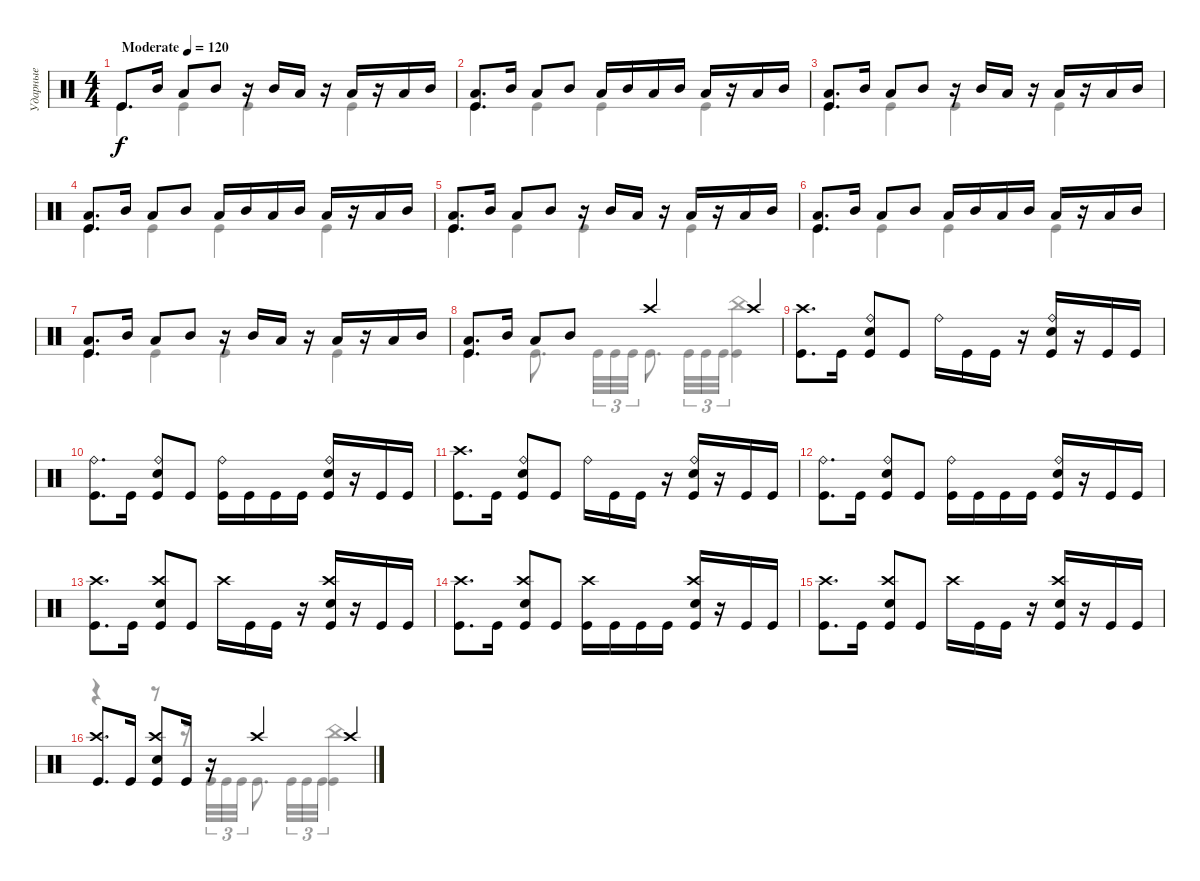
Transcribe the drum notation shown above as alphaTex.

\track ("Ударные" "Ударные") {instrument percussion}
\staff {score}
\articulation defaults
\voice
\ts (4 4)
\tempo (120 "Moderate")
\clef neutral
\ks c "Kick (hit)".8{d dy f} "Mid Tom (hit)".16 "Low Tom (hit)".8 "Mid Tom (hit)".8
r.16 "Mid Tom (hit)".16 "Low Tom (hit)".16 r.16 "Low Tom (hit)".16 r.16 "Low Tom (hit)".16 "Mid Tom (hit)".16 |
("Kick (hit)" "Low Tom (hit)").8{d} "Mid Tom (hit)".16 "Low Tom (hit)".8 "Mid Tom (hit)".8 "Low Tom (hit)".16 "Mid Tom (hit)".16 "Low Tom (hit)".16 "Mid Tom (hit)".16 "Low Tom (hit)".16 r.16 "Low Tom (hit)".16 "Mid Tom (hit)".16 |
("Kick (hit)" "Low Tom (hit)").8{d} "Mid Tom (hit)".16 "Low Tom (hit)".8 "Mid Tom (hit)".8 r.16 "Mid Tom (hit)".16 "Low Tom (hit)".16 r.16 "Low Tom (hit)".16 r.16 "Low Tom (hit)".16 "Mid Tom (hit)".16 |
("Kick (hit)" "Low Tom (hit)").8{d} "Mid Tom (hit)".16 "Low Tom (hit)".8 "Mid Tom (hit)".8 "Low Tom (hit)".16 "Mid Tom (hit)".16 "Low Tom (hit)".16 "Mid Tom (hit)".16 "Low Tom (hit)".16 r.16 "Low Tom (hit)".16 "Mid Tom (hit)".16 |
("Kick (hit)" "Low Tom (hit)").8{d} "Mid Tom (hit)".16 "Low Tom (hit)".8 "Mid Tom (hit)".8 r.16 "Mid Tom (hit)".16 "Low Tom (hit)".16 r.16 "Low Tom (hit)".16 r.16 "Low Tom (hit)".16 "Mid Tom (hit)".16 |
("Kick (hit)" "Low Tom (hit)").8{d} "Mid Tom (hit)".16 "Low Tom (hit)".8 "Mid Tom (hit)".8 "Low Tom (hit)".16 "Mid Tom (hit)".16 "Low Tom (hit)".16 "Mid Tom (hit)".16 "Low Tom (hit)".16 r.16 "Low Tom (hit)".16 "Mid Tom (hit)".16 |
("Kick (hit)" "Low Tom (hit)").8{d} "Mid Tom (hit)".16 "Low Tom (hit)".8 "Mid Tom (hit)".8 r.16 "Mid Tom (hit)".16 "Low Tom (hit)".16 r.16 "Low Tom (hit)".16 r.16 "Low Tom (hit)".16 "Mid Tom (hit)".16 |
("Kick (hit)" "Low Tom (hit)").8{d} "Mid Tom (hit)".16 "Low Tom (hit)".8 "Mid Tom (hit)".8 "Crash high (hit)".4 "Crash high (hit)".4 |
("Kick (hit)" "Crash high (hit)").8{d} "Kick (hit)".16 ("Kick (hit)" "Ride (bell)" "Snare (hit) 2").8 "Kick (hit)".8 "Ride (bell)".16 "Kick (hit)".16 "Kick (hit)".16 r.16 ("Kick (hit)" "Ride (bell)" "Snare (hit) 2").16 r.16 "Kick (hit)".16 "Kick (hit)".16 |
("Kick (hit)" "Ride (bell)").8{d} "Kick (hit)".16 ("Kick (hit)" "Ride (bell)" "Snare (hit) 2").8 "Kick (hit)".8 ("Kick (hit)" "Ride (bell)").16 "Kick (hit)".16 "Kick (hit)".16 "Kick (hit)".16 ("Kick (hit)" "Ride (bell)" "Snare (hit) 2").16 r.16 "Kick (hit)".16 "Kick (hit)".16 |
("Kick (hit)" "Crash high (hit)").8{d} "Kick (hit)".16 ("Kick (hit)" "Ride (bell)" "Snare (hit) 2").8 "Kick (hit)".8 "Ride (bell)".16 "Kick (hit)".16 "Kick (hit)".16 r.16 ("Kick (hit)" "Ride (bell)" "Snare (hit) 2").16 r.16 "Kick (hit)".16 "Kick (hit)".16 |
("Kick (hit)" "Ride (bell)").8{d} "Kick (hit)".16 ("Kick (hit)" "Ride (bell)" "Snare (hit) 2").8 "Kick (hit)".8 ("Kick (hit)" "Ride (bell)").16 "Kick (hit)".16 "Kick (hit)".16 "Kick (hit)".16 ("Kick (hit)" "Ride (bell)" "Snare (hit) 2").16 r.16 "Kick (hit)".16 "Kick (hit)".16 |
("Kick (hit)" "Crash high (hit)").8{d} "Kick (hit)".16 ("Kick (hit)" "Crash high (hit)" "Snare (hit) 2").8 "Kick (hit)".8 "Crash high (hit)".16 "Kick (hit)".16 "Kick (hit)".16 r.16 ("Kick (hit)" "Crash high (hit)" "Snare (hit) 2").16 r.16 "Kick (hit)".16 "Kick (hit)".16 |
("Kick (hit)" "Crash high (hit)").8{d} "Kick (hit)".16 ("Kick (hit)" "Crash high (hit)" "Snare (hit) 2").8 "Kick (hit)".8 ("Kick (hit)" "Crash high (hit)").16 "Kick (hit)".16 "Kick (hit)".16 "Kick (hit)".16 ("Kick (hit)" "Crash high (hit)" "Snare (hit) 2").16 r.16 "Kick (hit)".16 "Kick (hit)".16 |
("Kick (hit)" "Crash high (hit)").8{d} "Kick (hit)".16 ("Kick (hit)" "Crash high (hit)" "Snare (hit) 2").8 "Kick (hit)".8 "Crash high (hit)".16 "Kick (hit)".16 "Kick (hit)".16 r.16 ("Kick (hit)" "Crash high (hit)" "Snare (hit) 2").16 r.16 "Kick (hit)".16 "Kick (hit)".16 |
("Kick (hit)" "Crash high (hit)").8{d} "Kick (hit)".16 ("Kick (hit)" "Crash high (hit)" "Snare (hit) 2").8 "Kick (hit)".16 r.16 "Crash high (hit)".4 "Crash high (hit)".4
\voice
\clef neutral
\ottava regular
\simile none
\ks c "Kick (hit)".4{dy f} "Kick (hit)".4 "Kick (hit)".4 "Kick (hit)".4
|
"Kick (hit)".4 "Kick (hit)".4 "Kick (hit)".4 "Kick (hit)".4 |
"Kick (hit)".4 "Kick (hit)".4 "Kick (hit)".4 "Kick (hit)".4 |
"Kick (hit)".4 "Kick (hit)".4 "Kick (hit)".4 "Kick (hit)".4 |
"Kick (hit)".4 "Kick (hit)".4 "Kick (hit)".4 "Kick (hit)".4 |
"Kick (hit)".4 "Kick (hit)".4 "Kick (hit)".4 "Kick (hit)".4 |
"Kick (hit)".4 "Kick (hit)".4 "Kick (hit)".4 "Kick (hit)".4 |
"Kick (hit)".4 "Kick (hit)".8{d} "Kick (hit)".32{tu (3 2)} "Kick (hit)".32{tu (3 2)} "Kick (hit)".32{tu (3 2)} "Kick (hit)".8{d} "Kick (hit)".32{tu (3 2)} "Kick (hit)".32{tu (3 2)} "Kick (hit)".32{tu (3 2)} ("Kick (hit)" "China (hit)").4 |
|
|
|
|
|
|
|
r.4 r.8 r.16 "Kick (hit)".32{tu (3 2)} "Kick (hit)".32{tu (3 2)} "Kick (hit)".32{tu (3 2)} "Kick (hit)".8{d} "Kick (hit)".32{tu (3 2)} "Kick (hit)".32{tu (3 2)} "Kick (hit)".32{tu (3 2)} ("Kick (hit)" "China (hit)").4
